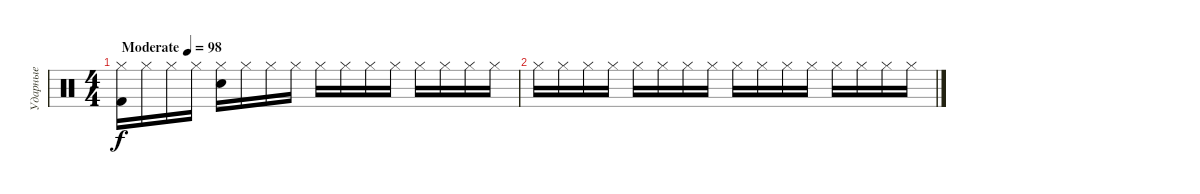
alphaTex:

\track ("Ударные" "Ударные") {mute instrument percussion}
\staff {score}
\articulation defaults
\ts (4 4)
\tempo (98 "Moderate")
\clef neutral
\ks c
("Hi-Hat (closed)" "Kick (hit) 2").16{dy f} "Hi-Hat (closed)".16 "Hi-Hat (closed)".16 "Hi-Hat (closed)".16 ("Hi-Hat (closed)" "Snare (hit) 2").16 "Hi-Hat (closed)".16 "Hi-Hat (closed)".16 "Hi-Hat (closed)".16 "Hi-Hat (closed)".16 "Hi-Hat (closed)".16 "Hi-Hat (closed)".16 "Hi-Hat (closed)".16 "Hi-Hat (closed)".16 "Hi-Hat (closed)".16 "Hi-Hat (closed)".16 "Hi-Hat (closed)".16 |
"Hi-Hat (closed)".16 "Hi-Hat (closed)".16 "Hi-Hat (closed)".16 "Hi-Hat (closed)".16 "Hi-Hat (closed)".16 "Hi-Hat (closed)".16 "Hi-Hat (closed)".16 "Hi-Hat (closed)".16 "Hi-Hat (closed)".16 "Hi-Hat (closed)".16 "Hi-Hat (closed)".16 "Hi-Hat (closed)".16 "Hi-Hat (closed)".16 "Hi-Hat (closed)".16 "Hi-Hat (closed)".16 "Hi-Hat (closed)".16
